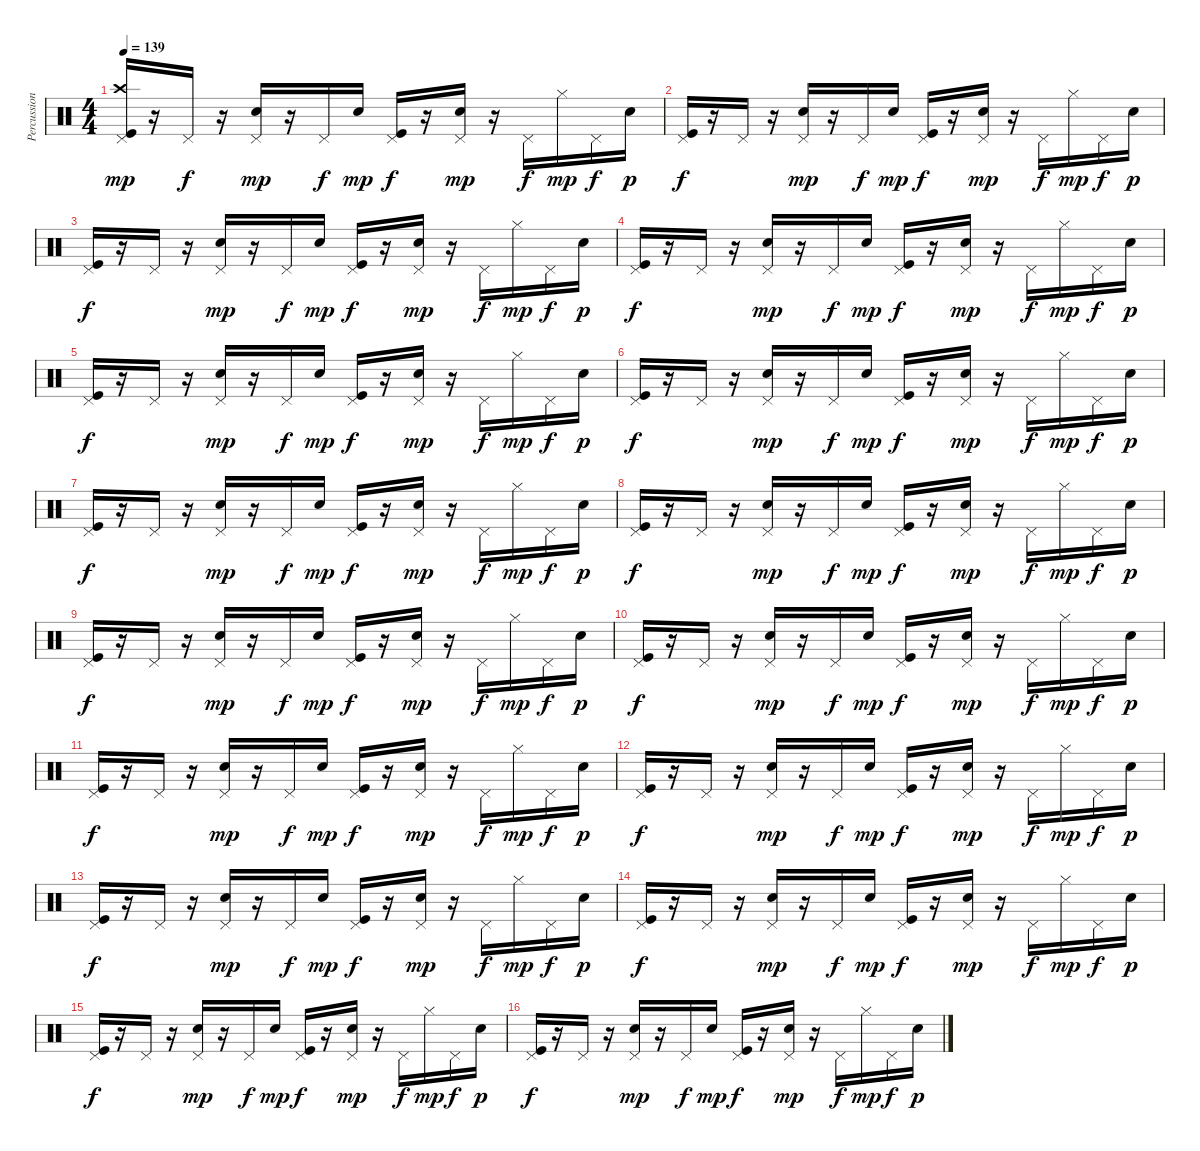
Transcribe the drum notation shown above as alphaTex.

\track ("Percussion" "Percussion") {instrument percussion}
\staff {score}
\articulation defaults
\ts (4 4)
\tempo 139
\clef neutral
\ks c
("Pedal Hi-Hat (hit)" "Crash high (hit)" "Kick (hit)").16{dy mp} r.16 "Pedal Hi-Hat (hit)".16{dy f} r.16 ("Pedal Hi-Hat (hit)" "Electric Snare (hit)").16{dy mp} r.16 "Pedal Hi-Hat (hit)".16{dy f} "Electric Snare (hit)".16{dy mp} ("Pedal Hi-Hat (hit)" "Kick (hit)").16{dy f} r.16 ("Pedal Hi-Hat (hit)" "Electric Snare (hit)").16{dy mp} r.16 "Pedal Hi-Hat (hit)".16{dy f} "Hi-Hat (closed)".16{dy mp} "Pedal Hi-Hat (hit)".16{dy f} "Electric Snare (hit)".16{dy p} |
("Pedal Hi-Hat (hit)" "Kick (hit)").16{dy f} r.16 "Pedal Hi-Hat (hit)".16 r.16 ("Pedal Hi-Hat (hit)" "Electric Snare (hit)").16{dy mp} r.16 "Pedal Hi-Hat (hit)".16{dy f} "Electric Snare (hit)".16{dy mp} ("Pedal Hi-Hat (hit)" "Kick (hit)").16{dy f} r.16 ("Pedal Hi-Hat (hit)" "Electric Snare (hit)").16{dy mp} r.16 "Pedal Hi-Hat (hit)".16{dy f} "Hi-Hat (closed)".16{dy mp} "Pedal Hi-Hat (hit)".16{dy f} "Electric Snare (hit)".16{dy p} |
("Pedal Hi-Hat (hit)" "Kick (hit)").16{dy f} r.16 "Pedal Hi-Hat (hit)".16 r.16 ("Pedal Hi-Hat (hit)" "Electric Snare (hit)").16{dy mp} r.16 "Pedal Hi-Hat (hit)".16{dy f} "Electric Snare (hit)".16{dy mp} ("Pedal Hi-Hat (hit)" "Kick (hit)").16{dy f} r.16 ("Pedal Hi-Hat (hit)" "Electric Snare (hit)").16{dy mp} r.16 "Pedal Hi-Hat (hit)".16{dy f} "Hi-Hat (closed)".16{dy mp} "Pedal Hi-Hat (hit)".16{dy f} "Electric Snare (hit)".16{dy p} |
("Pedal Hi-Hat (hit)" "Kick (hit)").16{dy f} r.16 "Pedal Hi-Hat (hit)".16 r.16 ("Pedal Hi-Hat (hit)" "Electric Snare (hit)").16{dy mp} r.16 "Pedal Hi-Hat (hit)".16{dy f} "Electric Snare (hit)".16{dy mp} ("Pedal Hi-Hat (hit)" "Kick (hit)").16{dy f} r.16 ("Pedal Hi-Hat (hit)" "Electric Snare (hit)").16{dy mp} r.16 "Pedal Hi-Hat (hit)".16{dy f} "Hi-Hat (closed)".16{dy mp} "Pedal Hi-Hat (hit)".16{dy f} "Electric Snare (hit)".16{dy p} |
("Pedal Hi-Hat (hit)" "Kick (hit)").16{dy f} r.16 "Pedal Hi-Hat (hit)".16 r.16 ("Pedal Hi-Hat (hit)" "Electric Snare (hit)").16{dy mp} r.16 "Pedal Hi-Hat (hit)".16{dy f} "Electric Snare (hit)".16{dy mp} ("Pedal Hi-Hat (hit)" "Kick (hit)").16{dy f} r.16 ("Pedal Hi-Hat (hit)" "Electric Snare (hit)").16{dy mp} r.16 "Pedal Hi-Hat (hit)".16{dy f} "Hi-Hat (closed)".16{dy mp} "Pedal Hi-Hat (hit)".16{dy f} "Electric Snare (hit)".16{dy p} |
("Pedal Hi-Hat (hit)" "Kick (hit)").16{dy f} r.16 "Pedal Hi-Hat (hit)".16 r.16 ("Pedal Hi-Hat (hit)" "Electric Snare (hit)").16{dy mp} r.16 "Pedal Hi-Hat (hit)".16{dy f} "Electric Snare (hit)".16{dy mp} ("Pedal Hi-Hat (hit)" "Kick (hit)").16{dy f} r.16 ("Pedal Hi-Hat (hit)" "Electric Snare (hit)").16{dy mp} r.16 "Pedal Hi-Hat (hit)".16{dy f} "Hi-Hat (closed)".16{dy mp} "Pedal Hi-Hat (hit)".16{dy f} "Electric Snare (hit)".16{dy p} |
("Pedal Hi-Hat (hit)" "Kick (hit)").16{dy f} r.16 "Pedal Hi-Hat (hit)".16 r.16 ("Pedal Hi-Hat (hit)" "Electric Snare (hit)").16{dy mp} r.16 "Pedal Hi-Hat (hit)".16{dy f} "Electric Snare (hit)".16{dy mp} ("Pedal Hi-Hat (hit)" "Kick (hit)").16{dy f} r.16 ("Pedal Hi-Hat (hit)" "Electric Snare (hit)").16{dy mp} r.16 "Pedal Hi-Hat (hit)".16{dy f} "Hi-Hat (closed)".16{dy mp} "Pedal Hi-Hat (hit)".16{dy f} "Electric Snare (hit)".16{dy p} |
("Pedal Hi-Hat (hit)" "Kick (hit)").16{dy f} r.16 "Pedal Hi-Hat (hit)".16 r.16 ("Pedal Hi-Hat (hit)" "Electric Snare (hit)").16{dy mp} r.16 "Pedal Hi-Hat (hit)".16{dy f} "Electric Snare (hit)".16{dy mp} ("Pedal Hi-Hat (hit)" "Kick (hit)").16{dy f} r.16 ("Pedal Hi-Hat (hit)" "Electric Snare (hit)").16{dy mp} r.16 "Pedal Hi-Hat (hit)".16{dy f} "Hi-Hat (closed)".16{dy mp} "Pedal Hi-Hat (hit)".16{dy f} "Electric Snare (hit)".16{dy p} |
("Pedal Hi-Hat (hit)" "Kick (hit)").16{dy f} r.16 "Pedal Hi-Hat (hit)".16 r.16 ("Pedal Hi-Hat (hit)" "Electric Snare (hit)").16{dy mp} r.16 "Pedal Hi-Hat (hit)".16{dy f} "Electric Snare (hit)".16{dy mp} ("Pedal Hi-Hat (hit)" "Kick (hit)").16{dy f} r.16 ("Pedal Hi-Hat (hit)" "Electric Snare (hit)").16{dy mp} r.16 "Pedal Hi-Hat (hit)".16{dy f} "Hi-Hat (closed)".16{dy mp} "Pedal Hi-Hat (hit)".16{dy f} "Electric Snare (hit)".16{dy p} |
("Pedal Hi-Hat (hit)" "Kick (hit)").16{dy f} r.16 "Pedal Hi-Hat (hit)".16 r.16 ("Pedal Hi-Hat (hit)" "Electric Snare (hit)").16{dy mp} r.16 "Pedal Hi-Hat (hit)".16{dy f} "Electric Snare (hit)".16{dy mp} ("Pedal Hi-Hat (hit)" "Kick (hit)").16{dy f} r.16 ("Pedal Hi-Hat (hit)" "Electric Snare (hit)").16{dy mp} r.16 "Pedal Hi-Hat (hit)".16{dy f} "Hi-Hat (closed)".16{dy mp} "Pedal Hi-Hat (hit)".16{dy f} "Electric Snare (hit)".16{dy p} |
("Pedal Hi-Hat (hit)" "Kick (hit)").16{dy f} r.16 "Pedal Hi-Hat (hit)".16 r.16 ("Pedal Hi-Hat (hit)" "Electric Snare (hit)").16{dy mp} r.16 "Pedal Hi-Hat (hit)".16{dy f} "Electric Snare (hit)".16{dy mp} ("Pedal Hi-Hat (hit)" "Kick (hit)").16{dy f} r.16 ("Pedal Hi-Hat (hit)" "Electric Snare (hit)").16{dy mp} r.16 "Pedal Hi-Hat (hit)".16{dy f} "Hi-Hat (closed)".16{dy mp} "Pedal Hi-Hat (hit)".16{dy f} "Electric Snare (hit)".16{dy p} |
("Pedal Hi-Hat (hit)" "Kick (hit)").16{dy f} r.16 "Pedal Hi-Hat (hit)".16 r.16 ("Pedal Hi-Hat (hit)" "Electric Snare (hit)").16{dy mp} r.16 "Pedal Hi-Hat (hit)".16{dy f} "Electric Snare (hit)".16{dy mp} ("Pedal Hi-Hat (hit)" "Kick (hit)").16{dy f} r.16 ("Pedal Hi-Hat (hit)" "Electric Snare (hit)").16{dy mp} r.16 "Pedal Hi-Hat (hit)".16{dy f} "Hi-Hat (closed)".16{dy mp} "Pedal Hi-Hat (hit)".16{dy f} "Electric Snare (hit)".16{dy p} |
("Pedal Hi-Hat (hit)" "Kick (hit)").16{dy f} r.16 "Pedal Hi-Hat (hit)".16 r.16 ("Pedal Hi-Hat (hit)" "Electric Snare (hit)").16{dy mp} r.16 "Pedal Hi-Hat (hit)".16{dy f} "Electric Snare (hit)".16{dy mp} ("Pedal Hi-Hat (hit)" "Kick (hit)").16{dy f} r.16 ("Pedal Hi-Hat (hit)" "Electric Snare (hit)").16{dy mp} r.16 "Pedal Hi-Hat (hit)".16{dy f} "Hi-Hat (closed)".16{dy mp} "Pedal Hi-Hat (hit)".16{dy f} "Electric Snare (hit)".16{dy p} |
("Pedal Hi-Hat (hit)" "Kick (hit)").16{dy f} r.16 "Pedal Hi-Hat (hit)".16 r.16 ("Pedal Hi-Hat (hit)" "Electric Snare (hit)").16{dy mp} r.16 "Pedal Hi-Hat (hit)".16{dy f} "Electric Snare (hit)".16{dy mp} ("Pedal Hi-Hat (hit)" "Kick (hit)").16{dy f} r.16 ("Pedal Hi-Hat (hit)" "Electric Snare (hit)").16{dy mp} r.16 "Pedal Hi-Hat (hit)".16{dy f} "Hi-Hat (closed)".16{dy mp} "Pedal Hi-Hat (hit)".16{dy f} "Electric Snare (hit)".16{dy p} |
("Pedal Hi-Hat (hit)" "Kick (hit)").16{dy f} r.16 "Pedal Hi-Hat (hit)".16 r.16 ("Pedal Hi-Hat (hit)" "Electric Snare (hit)").16{dy mp} r.16 "Pedal Hi-Hat (hit)".16{dy f} "Electric Snare (hit)".16{dy mp} ("Pedal Hi-Hat (hit)" "Kick (hit)").16{dy f} r.16 ("Pedal Hi-Hat (hit)" "Electric Snare (hit)").16{dy mp} r.16 "Pedal Hi-Hat (hit)".16{dy f} "Hi-Hat (closed)".16{dy mp} "Pedal Hi-Hat (hit)".16{dy f} "Electric Snare (hit)".16{dy p} |
("Pedal Hi-Hat (hit)" "Kick (hit)").16{dy f} r.16 "Pedal Hi-Hat (hit)".16 r.16 ("Pedal Hi-Hat (hit)" "Electric Snare (hit)").16{dy mp} r.16 "Pedal Hi-Hat (hit)".16{dy f} "Electric Snare (hit)".16{dy mp} ("Pedal Hi-Hat (hit)" "Kick (hit)").16{dy f} r.16 ("Pedal Hi-Hat (hit)" "Electric Snare (hit)").16{dy mp} r.16 "Pedal Hi-Hat (hit)".16{dy f} "Hi-Hat (closed)".16{dy mp} "Pedal Hi-Hat (hit)".16{dy f} "Electric Snare (hit)".16{dy p}
